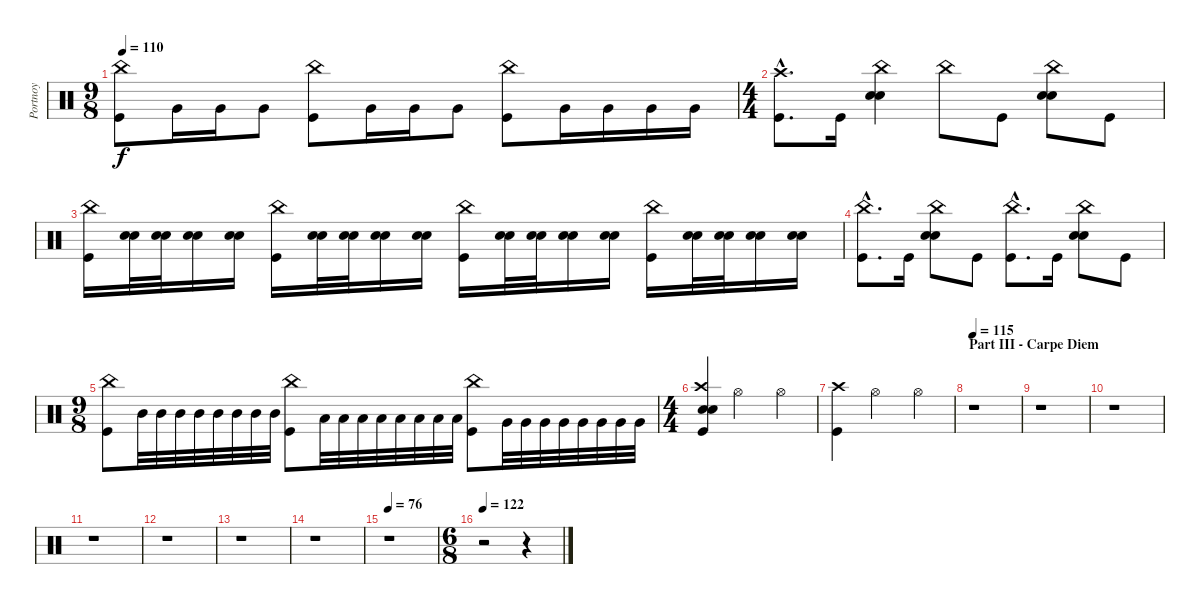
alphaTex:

\track ("Portnoy" "Portnoy") {instrument percussion}
\staff {score}
\articulation defaults
\ts (9 8)
\tempo 110
\clef neutral
\ks c
("China (hit)" "Kick (hit)").8{dy f} "Very Low Tom (hit)".16 "Very Low Tom (hit)".16 "Very Low Tom (hit)".8 ("China (hit)" "Kick (hit)").8 "Very Low Tom (hit)".16 "Very Low Tom (hit)".16 "Very Low Tom (hit)".8 ("China (hit)" "Kick (hit)").8 "Very Low Tom (hit)".16 "Very Low Tom (hit)".16 "Very Low Tom (hit)".16 "Very Low Tom (hit)".16 |
\ts (4 4)
("Crash high (hit)"{hac} "Kick (hit)"{hac}).8{d} "Kick (hit)".16 ("China (hit)" "Snare (hit) 2" "Electric Snare (hit)").4 "China (hit)".8 "Kick (hit)".8 ("China (hit)" "Snare (hit) 2" "Electric Snare (hit)").8 "Kick (hit)".8 |
("China (hit)" "Kick (hit)").16 ("Snare (hit) 2" "Electric Snare (hit)").32 ("Snare (hit) 2" "Electric Snare (hit)").32 ("Snare (hit) 2" "Electric Snare (hit)").16 ("Snare (hit) 2" "Electric Snare (hit)").16 ("China (hit)" "Kick (hit)").16 ("Snare (hit) 2" "Electric Snare (hit)").32 ("Snare (hit) 2" "Electric Snare (hit)").32 ("Snare (hit) 2" "Electric Snare (hit)").16 ("Snare (hit) 2" "Electric Snare (hit)").16 ("China (hit)" "Kick (hit)").16 ("Snare (hit) 2" "Electric Snare (hit)").32 ("Snare (hit) 2" "Electric Snare (hit)").32 ("Snare (hit) 2" "Electric Snare (hit)").16 ("Snare (hit) 2" "Electric Snare (hit)").16 ("China (hit)" "Kick (hit)").16 ("Snare (hit) 2" "Electric Snare (hit)").32 ("Snare (hit) 2" "Electric Snare (hit)").32 ("Snare (hit) 2" "Electric Snare (hit)").16 ("Snare (hit) 2" "Electric Snare (hit)").16 |
("China (hit)"{hac} "Kick (hit)"{hac}).8{d} "Kick (hit)".16 ("China (hit)" "Snare (hit) 2" "Electric Snare (hit)").8 "Kick (hit)".8 ("China (hit)"{hac} "Kick (hit)"{hac}).8{d} "Kick (hit)".16 ("China (hit)" "Snare (hit) 2" "Electric Snare (hit)").8 "Kick (hit)".8 |
\ts (9 8)
("China (hit)" "Kick (hit)").8 "Mid Tom (hit)".32 "Mid Tom (hit)".32 "Mid Tom (hit)".32 "Mid Tom (hit)".32 "Mid Tom (hit)".32 "Mid Tom (hit)".32 "Mid Tom (hit)".32 "Mid Tom (hit)".32 ("China (hit)" "Kick (hit)").8 "Low Tom (hit)".32 "Low Tom (hit)".32 "Low Tom (hit)".32 "Low Tom (hit)".32 "Low Tom (hit)".32 "Low Tom (hit)".32 "Low Tom (hit)".32 "Low Tom (hit)".32 ("China (hit)" "Kick (hit)").8 "Very Low Tom (hit)".32 "Very Low Tom (hit)".32 "Very Low Tom (hit)".32 "Very Low Tom (hit)".32 "Very Low Tom (hit)".32 "Very Low Tom (hit)".32 "Very Low Tom (hit)".32 "Very Low Tom (hit)".32 |
\ts (4 4)
("Crash high (hit)" "Snare (hit) 2" "Electric Snare (hit)" "Kick (hit)").4 "Hi-Hat (open)".2 "Hi-Hat (open)".4 |
("Crash high (hit)" "Kick (hit)").4 "Hi-Hat (open)".2 "Hi-Hat (open)".4 |
\section ("" "Part III - Carpe Diem")
\tempo 115
r.1 |
r.1 |
r.1 |
r.1 |
r.1 |
r.1 |
r.1 |
\tempo 76
r.1 |
\ts (6 8)
\tempo 122
r.2 r.4
